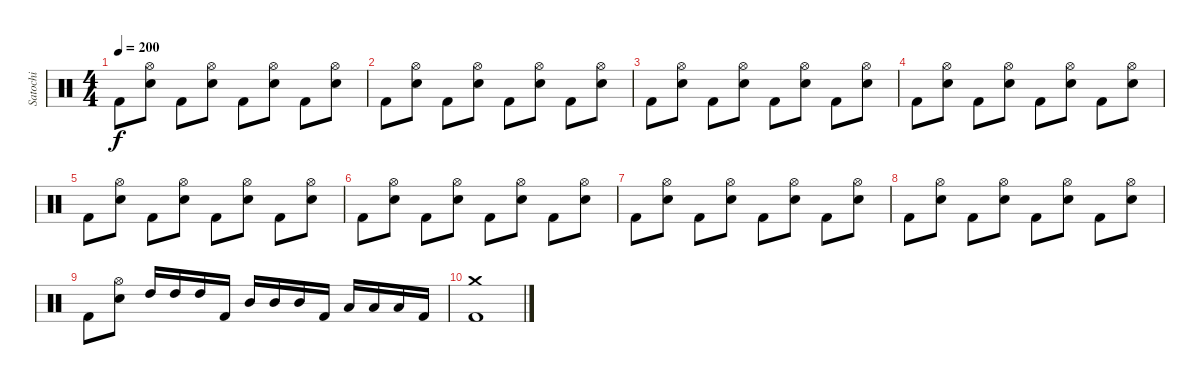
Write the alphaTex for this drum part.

\track ("Satochi" "Satochi") {instrument percussion}
\staff {score}
\articulation defaults
\ts (4 4)
\tempo 200
\clef neutral
\ks c "Kick (hit) 2".8{dy f}
("Hi-Hat (open)" "Electric Snare (hit)").8 "Kick (hit) 2".8 ("Hi-Hat (open)" "Electric Snare (hit)").8 "Kick (hit) 2".8 ("Hi-Hat (open)" "Electric Snare (hit)").8 "Kick (hit) 2".8 ("Hi-Hat (open)" "Electric Snare (hit)").8 |
"Kick (hit) 2".8 ("Hi-Hat (open)" "Electric Snare (hit)").8 "Kick (hit) 2".8 ("Hi-Hat (open)" "Electric Snare (hit)").8 "Kick (hit) 2".8 ("Hi-Hat (open)" "Electric Snare (hit)").8 "Kick (hit) 2".8 ("Hi-Hat (open)" "Electric Snare (hit)").8 |
"Kick (hit) 2".8 ("Hi-Hat (open)" "Electric Snare (hit)").8 "Kick (hit) 2".8 ("Hi-Hat (open)" "Electric Snare (hit)").8 "Kick (hit) 2".8 ("Hi-Hat (open)" "Electric Snare (hit)").8 "Kick (hit) 2".8 ("Hi-Hat (open)" "Electric Snare (hit)").8 |
"Kick (hit) 2".8 ("Hi-Hat (open)" "Electric Snare (hit)").8 "Kick (hit) 2".8 ("Hi-Hat (open)" "Electric Snare (hit)").8 "Kick (hit) 2".8 ("Hi-Hat (open)" "Electric Snare (hit)").8 "Kick (hit) 2".8 ("Hi-Hat (open)" "Electric Snare (hit)").8 |
"Kick (hit) 2".8 ("Hi-Hat (open)" "Electric Snare (hit)").8 "Kick (hit) 2".8 ("Hi-Hat (open)" "Electric Snare (hit)").8 "Kick (hit) 2".8 ("Hi-Hat (open)" "Electric Snare (hit)").8 "Kick (hit) 2".8 ("Hi-Hat (open)" "Electric Snare (hit)").8 |
"Kick (hit) 2".8 ("Hi-Hat (open)" "Electric Snare (hit)").8 "Kick (hit) 2".8 ("Hi-Hat (open)" "Electric Snare (hit)").8 "Kick (hit) 2".8 ("Hi-Hat (open)" "Electric Snare (hit)").8 "Kick (hit) 2".8 ("Hi-Hat (open)" "Electric Snare (hit)").8 |
"Kick (hit) 2".8 ("Hi-Hat (open)" "Electric Snare (hit)").8 "Kick (hit) 2".8 ("Hi-Hat (open)" "Electric Snare (hit)").8 "Kick (hit) 2".8 ("Hi-Hat (open)" "Electric Snare (hit)").8 "Kick (hit) 2".8 ("Hi-Hat (open)" "Electric Snare (hit)").8 |
"Kick (hit) 2".8 ("Hi-Hat (open)" "Electric Snare (hit)").8 "Kick (hit) 2".8 ("Hi-Hat (open)" "Electric Snare (hit)").8 "Kick (hit) 2".8 ("Hi-Hat (open)" "Electric Snare (hit)").8 "Kick (hit) 2".8 ("Hi-Hat (open)" "Electric Snare (hit)").8 |
"Kick (hit) 2".8 ("Hi-Hat (open)" "Electric Snare (hit)").8 "High Tom (hit)".16 "High Tom (hit)".16 "High Tom (hit)".16 "Kick (hit) 2".16 "Mid Tom (hit)".16 "Mid Tom (hit)".16 "Mid Tom (hit)".16 "Kick (hit) 2".16 "Low Tom (hit)".16 "Low Tom (hit)".16 "Low Tom (hit)".16 "Kick (hit) 2".16 |
("Crash medium (hit)" "Kick (hit) 2").1
